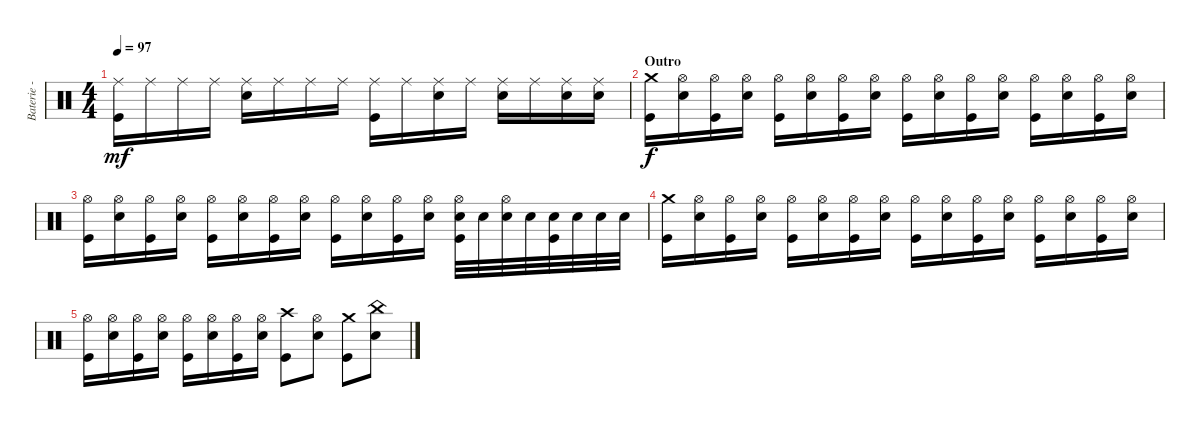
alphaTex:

\track ("Baterie - Alex" "Baterie - ") {instrument percussion}
\staff {score}
\articulation defaults
\ts (4 4)
\tempo 97
\clef neutral
\ks c
("Ride (middle)" "Kick (hit)").16{dy mf} "Ride (middle)".16 "Ride (middle)".16 "Ride (middle)".16 ("Ride (middle)" "Electric Snare (hit)").16 "Ride (middle)".16 "Ride (middle)".16 "Ride (middle)".16 ("Ride (middle)" "Kick (hit)").16 "Ride (middle)".16 ("Ride (middle)" "Electric Snare (hit)").16 "Ride (middle)".16 ("Ride (middle)" "Electric Snare (hit)").16 "Ride (middle)".16 ("Ride (middle)" "Electric Snare (hit)").16 ("Ride (middle)" "Electric Snare (hit)").16 |
\section ("" "Outro")
("Crash medium (hit)" "Kick (hit)").16{dy f} ("Hi-Hat (open)" "Electric Snare (hit)").16 ("Hi-Hat (open)" "Kick (hit)").16 ("Hi-Hat (open)" "Electric Snare (hit)").16 ("Hi-Hat (open)" "Kick (hit)").16 ("Hi-Hat (open)" "Electric Snare (hit)").16 ("Hi-Hat (open)" "Kick (hit)").16 ("Hi-Hat (open)" "Electric Snare (hit)").16 ("Hi-Hat (open)" "Kick (hit)").16 ("Hi-Hat (open)" "Electric Snare (hit)").16 ("Hi-Hat (open)" "Kick (hit)").16 ("Hi-Hat (open)" "Electric Snare (hit)").16 ("Hi-Hat (open)" "Kick (hit)").16 ("Hi-Hat (open)" "Electric Snare (hit)").16 ("Hi-Hat (open)" "Kick (hit)").16 ("Hi-Hat (open)" "Electric Snare (hit)").16 |
("Hi-Hat (open)" "Kick (hit)").16 ("Hi-Hat (open)" "Electric Snare (hit)").16 ("Hi-Hat (open)" "Kick (hit)").16 ("Hi-Hat (open)" "Electric Snare (hit)").16 ("Hi-Hat (open)" "Kick (hit)").16 ("Hi-Hat (open)" "Electric Snare (hit)").16 ("Hi-Hat (open)" "Kick (hit)").16 ("Hi-Hat (open)" "Electric Snare (hit)").16 ("Hi-Hat (open)" "Kick (hit)").16 ("Hi-Hat (open)" "Electric Snare (hit)").16 ("Hi-Hat (open)" "Kick (hit)").16 ("Hi-Hat (open)" "Electric Snare (hit)").16 ("Hi-Hat (open)" "Electric Snare (hit)" "Kick (hit)").32 "Electric Snare (hit)".32 ("Hi-Hat (open)" "Electric Snare (hit)").32 "Electric Snare (hit)".32 ("Electric Snare (hit)" "Kick (hit)").32 "Electric Snare (hit)".32 "Electric Snare (hit)".32 "Electric Snare (hit)".32 |
("Crash medium (hit)" "Kick (hit)").16 ("Hi-Hat (open)" "Electric Snare (hit)").16 ("Hi-Hat (open)" "Kick (hit)").16 ("Hi-Hat (open)" "Electric Snare (hit)").16 ("Hi-Hat (open)" "Kick (hit)").16 ("Hi-Hat (open)" "Electric Snare (hit)").16 ("Hi-Hat (open)" "Kick (hit)").16 ("Hi-Hat (open)" "Electric Snare (hit)").16 ("Hi-Hat (open)" "Kick (hit)").16 ("Hi-Hat (open)" "Electric Snare (hit)").16 ("Hi-Hat (open)" "Kick (hit)").16 ("Hi-Hat (open)" "Electric Snare (hit)").16 ("Hi-Hat (open)" "Kick (hit)").16 ("Hi-Hat (open)" "Electric Snare (hit)").16 ("Hi-Hat (open)" "Kick (hit)").16 ("Hi-Hat (open)" "Electric Snare (hit)").16 |
("Hi-Hat (open)" "Kick (hit)").16 ("Hi-Hat (open)" "Electric Snare (hit)").16 ("Hi-Hat (open)" "Kick (hit)").16 ("Hi-Hat (open)" "Electric Snare (hit)").16 ("Hi-Hat (open)" "Kick (hit)").16 ("Hi-Hat (open)" "Electric Snare (hit)").16 ("Hi-Hat (open)" "Kick (hit)").16 ("Hi-Hat (open)" "Electric Snare (hit)").16 ("Crash high (hit)" "Kick (hit)").8 ("Hi-Hat (open)" "Electric Snare (hit)").8 ("Crash medium (hit)" "Kick (hit)").8 ("China (hit)" "Electric Snare (hit)").8
